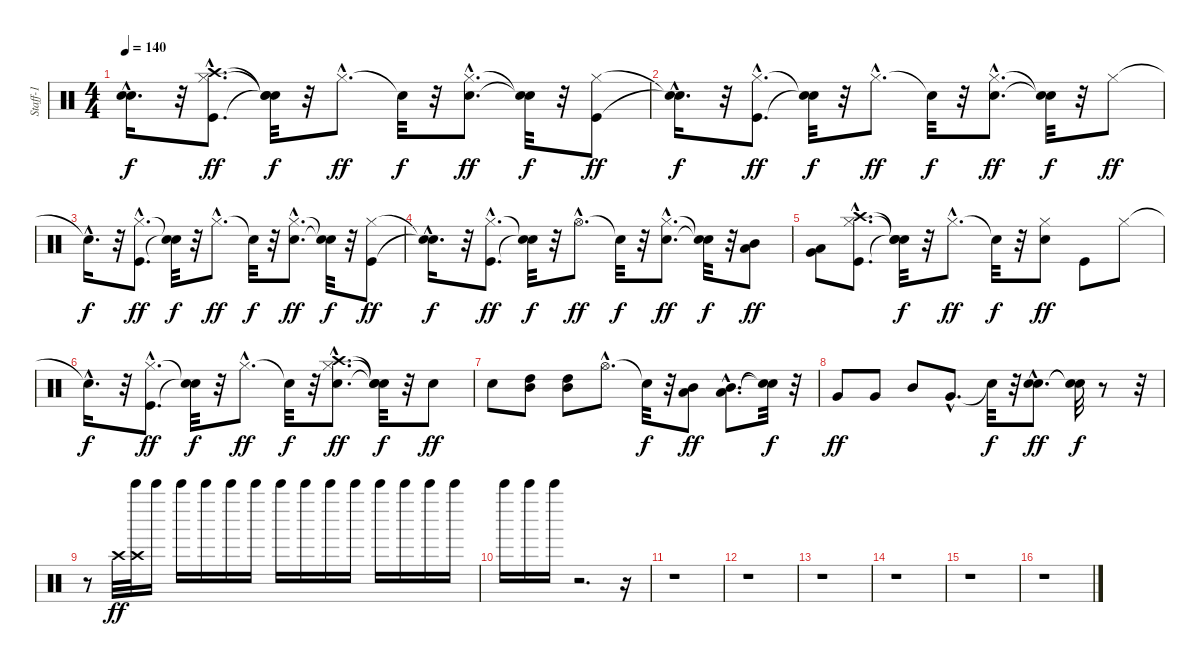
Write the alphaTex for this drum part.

\track ("Staff-1" "Staff-1") {instrument percussion}
\staff {score}
\articulation defaults
\ts (4 4)
\tempo 140
\clef neutral
\ks c
("Snare (hit)"{hac t} "Snare (hit)"{hac t}).16{d dy f} r.32 ("Kick (hit)"{hac} "Hi-Hat (closed)"{hac} "Crash high (hit)"{hac}).8{d dy ff} ("Snare (hit)"{t} "Snare (hit)"{t} "Snare (hit)"{t}).32{dy f} r.32 "Hi-Hat (closed)"{hac}.8{d dy ff} "Snare (hit)"{t}.32{dy f} r.32 ("Snare (hit) 2"{hac} "Hi-Hat (closed)"{hac}).8{d dy ff} ("Snare (hit)"{t} "Snare (hit)"{t}).32{dy f} r.32 ("Kick (hit)" "Hi-Hat (closed)").8{dy ff} |
("Snare (hit)"{hac t} "Snare (hit)"{hac t}).16{d dy f} r.32 ("Kick (hit)"{hac} "Hi-Hat (closed)"{hac}).8{d dy ff} ("Snare (hit)"{t} "Snare (hit)"{t}).32{dy f} r.32 "Hi-Hat (closed)"{hac}.8{d dy ff} "Snare (hit)"{t}.32{dy f} r.32 ("Snare (hit) 2"{hac} "Hi-Hat (closed)"{hac}).8{d dy ff} ("Snare (hit)"{t} "Snare (hit)"{t}).32{dy f} r.32 "Hi-Hat (closed)".8{dy ff} |
"Snare (hit)"{hac t}.16{d dy f} r.32 ("Kick (hit)"{hac} "Hi-Hat (closed)"{hac}).8{d dy ff} ("Snare (hit)"{t} "Snare (hit)"{t}).32{dy f} r.32 "Hi-Hat (closed)"{hac}.8{d dy ff} "Snare (hit)"{t}.32{dy f} r.32 ("Snare (hit) 2"{hac} "Hi-Hat (closed)"{hac}).8{d dy ff} ("Snare (hit)"{t} "Snare (hit)"{t}).32{dy f} r.32 ("Kick (hit)" "Hi-Hat (closed)").8{dy ff} |
("Snare (hit)"{hac t} "Snare (hit)"{hac t}).16{d dy f} r.32 ("Kick (hit)"{hac} "Hi-Hat (closed)"{hac}).8{d dy ff} ("Snare (hit)"{t} "Snare (hit)"{t}).32{dy f} r.32 "Hi-Hat (open)"{hac}.8{d dy ff} "Snare (hit)"{t}.32{dy f} r.32 ("Snare (hit) 2"{hac} "Hi-Hat (closed)"{hac}).8{d dy ff} ("Snare (hit)"{t} "Snare (hit)"{t}).32{dy f} r.32 ("Low Tom (hit)" "Mid Tom (hit)").8{dy ff} |
("Very Low Tom (hit)" "Low Tom (hit)").8 ("Kick (hit)"{hac} "Hi-Hat (closed)"{hac} "Crash high (hit)"{hac}).8{d} ("Snare (hit)"{t} "Snare (hit)"{t} "Snare (hit)"{t}).32{dy f} r.32 "Hi-Hat (closed)"{hac}.8{d dy ff} "Snare (hit)"{t}.32{dy f} r.32 ("Snare (hit) 2" "Hi-Hat (closed)").8{dy ff} "Kick (hit)".8 "Hi-Hat (closed)".8 |
"Snare (hit)"{hac t}.16{d dy f} r.32 ("Kick (hit)"{hac} "Hi-Hat (closed)"{hac}).8{d dy ff} ("Snare (hit)"{t} "Snare (hit)"{t}).32{dy f} r.32 "Hi-Hat (closed)"{hac}.8{d dy ff} "Snare (hit)"{t}.32{dy f} r.32 ("Snare (hit) 2"{hac} "Hi-Hat (closed)"{hac} "Crash high (hit)"{hac}).8{d dy ff} ("Snare (hit)"{t} "Snare (hit)"{t} "Snare (hit)"{t}).32{dy f} r.32 "Snare (hit) 2".8{dy ff} |
"Snare (hit) 2".8 ("Mid Tom (hit)" "High Tom (hit)").8 ("Mid Tom (hit)" "High Tom (hit)").8 "Hi-Hat (open)"{hac}.8{d} "Snare (hit)"{t}.32{dy f} r.32 ("Low Tom (hit)" "Mid Tom (hit)").8{dy ff} ("Low Tom (hit)"{hac} "Mid Tom (hit)"{hac}).8{d} ("Snare (hit)"{t} "Snare (hit)"{t}).32{dy f} r.32 |
"Very Low Tom (hit)".8{dy ff} "Very Low Tom (hit)".8 "Mid Tom (hit)".8 "Very Low Tom (hit)"{hac}.8{d} "Snare (hit)"{t}.32{dy f} r.32 ("Snare (hit) 2"{hac} "Electric Snare (hit)"{hac}).8{d dy ff} ("Snare (hit)"{t} "Snare (hit)"{t}).32{dy f} r.8 r.32 |
r.8 "Crash high (hit)".32{dy ff volume 16} ("Crash high (hit)" "Bell Tree (hit)").32{volume 15} "Bell Tree (hit)".16{volume 15} "Bell Tree (hit)".16{volume 14} "Bell Tree (hit)".16{volume 13} "Bell Tree (hit)".16{volume 12} "Bell Tree (hit)".16{volume 11} "Bell Tree (hit)".16{volume 10} "Bell Tree (hit)".16{volume 9} "Bell Tree (hit)".16{volume 8} "Bell Tree (hit)".16{volume 7} "Bell Tree (hit)".16{volume 6} "Bell Tree (hit)".16{volume 5} "Bell Tree (hit)".16{volume 4} "Bell Tree (hit)".16{volume 3} |
"Bell Tree (hit)".16{volume 2} "Bell Tree (hit)".16{volume 1} "Bell Tree (hit)".16{volume 0} r.2{d} r.16 |
r.1 |
r.1 |
r.1 |
r.1 |
r.1 |
r.1
